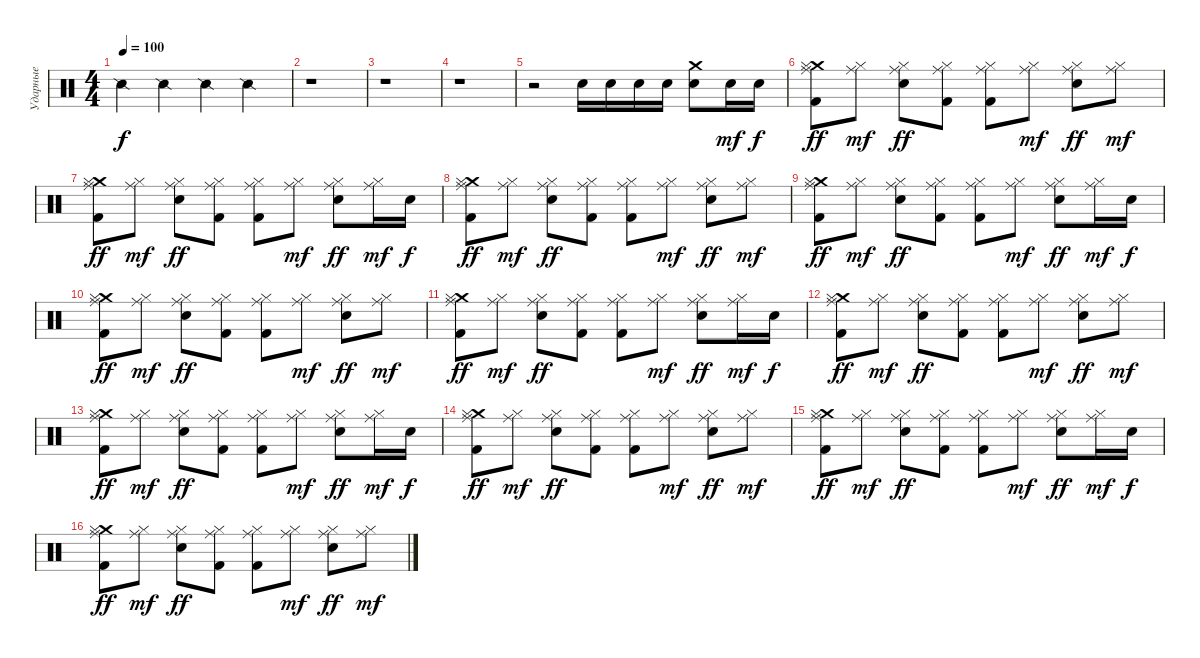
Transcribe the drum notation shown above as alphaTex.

\track ("Ударные" "Ударные") {instrument percussion}
\staff {score}
\articulation defaults
\ts (4 4)
\tempo 100
\clef neutral
\ks c "Snare (side stick) 2".4{dy f} "Snare (side stick) 2".4 "Snare (side stick) 2".4 "Snare (side stick) 2".4
|
r.1 |
r.1 |
r.1 |
r.2 "Electric Snare (hit)".16 "Electric Snare (hit)".16 "Electric Snare (hit)".16 "Electric Snare (hit)".16 ("Crash medium (hit)" "Electric Snare (hit)").8 "Electric Snare (hit)".16{dy mf} "Snare (hit) 2".16{dy f} |
("Ride (middle)" "Crash medium (hit)" "Hi-Hat (closed)" "Kick (hit) 2").8{dy ff} ("Ride (middle)" "Hi-Hat (closed)").8{dy mf} ("Ride (middle)" "Hi-Hat (closed)" "Snare (hit) 2").8{dy ff} ("Ride (middle)" "Hi-Hat (closed)" "Kick (hit) 2").8 ("Ride (middle)" "Hi-Hat (closed)" "Kick (hit) 2").8 ("Ride (middle)" "Hi-Hat (closed)").8{dy mf} ("Ride (middle)" "Hi-Hat (closed)" "Snare (hit) 2").8{dy ff} ("Ride (middle)" "Hi-Hat (closed)").8{dy mf} |
("Ride (middle)" "Crash medium (hit)" "Hi-Hat (closed)" "Kick (hit) 2").8{dy ff} ("Ride (middle)" "Hi-Hat (closed)").8{dy mf} ("Ride (middle)" "Hi-Hat (closed)" "Snare (hit) 2").8{dy ff} ("Ride (middle)" "Hi-Hat (closed)" "Kick (hit) 2").8 ("Ride (middle)" "Hi-Hat (closed)" "Kick (hit) 2").8 ("Ride (middle)" "Hi-Hat (closed)").8{dy mf} ("Ride (middle)" "Hi-Hat (closed)" "Snare (hit) 2").8{dy ff} ("Ride (middle)" "Hi-Hat (closed)").16{dy mf} "Electric Snare (hit)".16{dy f} |
("Ride (middle)" "Crash medium (hit)" "Hi-Hat (closed)" "Kick (hit) 2").8{dy ff} ("Ride (middle)" "Hi-Hat (closed)").8{dy mf} ("Ride (middle)" "Hi-Hat (closed)" "Snare (hit) 2").8{dy ff} ("Ride (middle)" "Hi-Hat (closed)" "Kick (hit) 2").8 ("Ride (middle)" "Hi-Hat (closed)" "Kick (hit) 2").8 ("Ride (middle)" "Hi-Hat (closed)").8{dy mf} ("Ride (middle)" "Hi-Hat (closed)" "Snare (hit) 2").8{dy ff} ("Ride (middle)" "Hi-Hat (closed)").8{dy mf} |
("Ride (middle)" "Crash medium (hit)" "Hi-Hat (closed)" "Kick (hit) 2").8{dy ff} ("Ride (middle)" "Hi-Hat (closed)").8{dy mf} ("Ride (middle)" "Hi-Hat (closed)" "Snare (hit) 2").8{dy ff} ("Ride (middle)" "Hi-Hat (closed)" "Kick (hit) 2").8 ("Ride (middle)" "Hi-Hat (closed)" "Kick (hit) 2").8 ("Ride (middle)" "Hi-Hat (closed)").8{dy mf} ("Ride (middle)" "Hi-Hat (closed)" "Snare (hit) 2").8{dy ff} ("Ride (middle)" "Hi-Hat (closed)").16{dy mf} "Electric Snare (hit)".16{dy f} |
("Ride (middle)" "Crash medium (hit)" "Hi-Hat (closed)" "Kick (hit) 2").8{dy ff} ("Ride (middle)" "Hi-Hat (closed)").8{dy mf} ("Ride (middle)" "Hi-Hat (closed)" "Snare (hit) 2").8{dy ff} ("Ride (middle)" "Hi-Hat (closed)" "Kick (hit) 2").8 ("Ride (middle)" "Hi-Hat (closed)" "Kick (hit) 2").8 ("Ride (middle)" "Hi-Hat (closed)").8{dy mf} ("Ride (middle)" "Hi-Hat (closed)" "Snare (hit) 2").8{dy ff} ("Ride (middle)" "Hi-Hat (closed)").8{dy mf} |
("Ride (middle)" "Crash medium (hit)" "Hi-Hat (closed)" "Kick (hit) 2").8{dy ff} ("Ride (middle)" "Hi-Hat (closed)").8{dy mf} ("Ride (middle)" "Hi-Hat (closed)" "Snare (hit) 2").8{dy ff} ("Ride (middle)" "Hi-Hat (closed)" "Kick (hit) 2").8 ("Ride (middle)" "Hi-Hat (closed)" "Kick (hit) 2").8 ("Ride (middle)" "Hi-Hat (closed)").8{dy mf} ("Ride (middle)" "Hi-Hat (closed)" "Snare (hit) 2").8{dy ff} ("Ride (middle)" "Hi-Hat (closed)").16{dy mf} "Electric Snare (hit)".16{dy f} |
("Ride (middle)" "Crash medium (hit)" "Hi-Hat (closed)" "Kick (hit) 2").8{dy ff} ("Ride (middle)" "Hi-Hat (closed)").8{dy mf} ("Ride (middle)" "Hi-Hat (closed)" "Snare (hit) 2").8{dy ff} ("Ride (middle)" "Hi-Hat (closed)" "Kick (hit) 2").8 ("Ride (middle)" "Hi-Hat (closed)" "Kick (hit) 2").8 ("Ride (middle)" "Hi-Hat (closed)").8{dy mf} ("Ride (middle)" "Hi-Hat (closed)" "Snare (hit) 2").8{dy ff} ("Ride (middle)" "Hi-Hat (closed)").8{dy mf} |
("Ride (middle)" "Crash medium (hit)" "Hi-Hat (closed)" "Kick (hit) 2").8{dy ff} ("Ride (middle)" "Hi-Hat (closed)").8{dy mf} ("Ride (middle)" "Hi-Hat (closed)" "Snare (hit) 2").8{dy ff} ("Ride (middle)" "Hi-Hat (closed)" "Kick (hit) 2").8 ("Ride (middle)" "Hi-Hat (closed)" "Kick (hit) 2").8 ("Ride (middle)" "Hi-Hat (closed)").8{dy mf} ("Ride (middle)" "Hi-Hat (closed)" "Snare (hit) 2").8{dy ff} ("Ride (middle)" "Hi-Hat (closed)").16{dy mf} "Electric Snare (hit)".16{dy f} |
("Ride (middle)" "Crash medium (hit)" "Hi-Hat (closed)" "Kick (hit) 2").8{dy ff} ("Ride (middle)" "Hi-Hat (closed)").8{dy mf} ("Ride (middle)" "Hi-Hat (closed)" "Snare (hit) 2").8{dy ff} ("Ride (middle)" "Hi-Hat (closed)" "Kick (hit) 2").8 ("Ride (middle)" "Hi-Hat (closed)" "Kick (hit) 2").8 ("Ride (middle)" "Hi-Hat (closed)").8{dy mf} ("Ride (middle)" "Hi-Hat (closed)" "Snare (hit) 2").8{dy ff} ("Ride (middle)" "Hi-Hat (closed)").8{dy mf} |
("Ride (middle)" "Crash medium (hit)" "Hi-Hat (closed)" "Kick (hit) 2").8{dy ff} ("Ride (middle)" "Hi-Hat (closed)").8{dy mf} ("Ride (middle)" "Hi-Hat (closed)" "Snare (hit) 2").8{dy ff} ("Ride (middle)" "Hi-Hat (closed)" "Kick (hit) 2").8 ("Ride (middle)" "Hi-Hat (closed)" "Kick (hit) 2").8 ("Ride (middle)" "Hi-Hat (closed)").8{dy mf} ("Ride (middle)" "Hi-Hat (closed)" "Snare (hit) 2").8{dy ff} ("Ride (middle)" "Hi-Hat (closed)").16{dy mf} "Electric Snare (hit)".16{dy f} |
("Ride (middle)" "Crash medium (hit)" "Hi-Hat (closed)" "Kick (hit) 2").8{dy ff} ("Ride (middle)" "Hi-Hat (closed)").8{dy mf} ("Ride (middle)" "Hi-Hat (closed)" "Snare (hit) 2").8{dy ff} ("Ride (middle)" "Hi-Hat (closed)" "Kick (hit) 2").8 ("Ride (middle)" "Hi-Hat (closed)" "Kick (hit) 2").8 ("Ride (middle)" "Hi-Hat (closed)").8{dy mf} ("Ride (middle)" "Hi-Hat (closed)" "Snare (hit) 2").8{dy ff} ("Ride (middle)" "Hi-Hat (closed)").8{dy mf}
